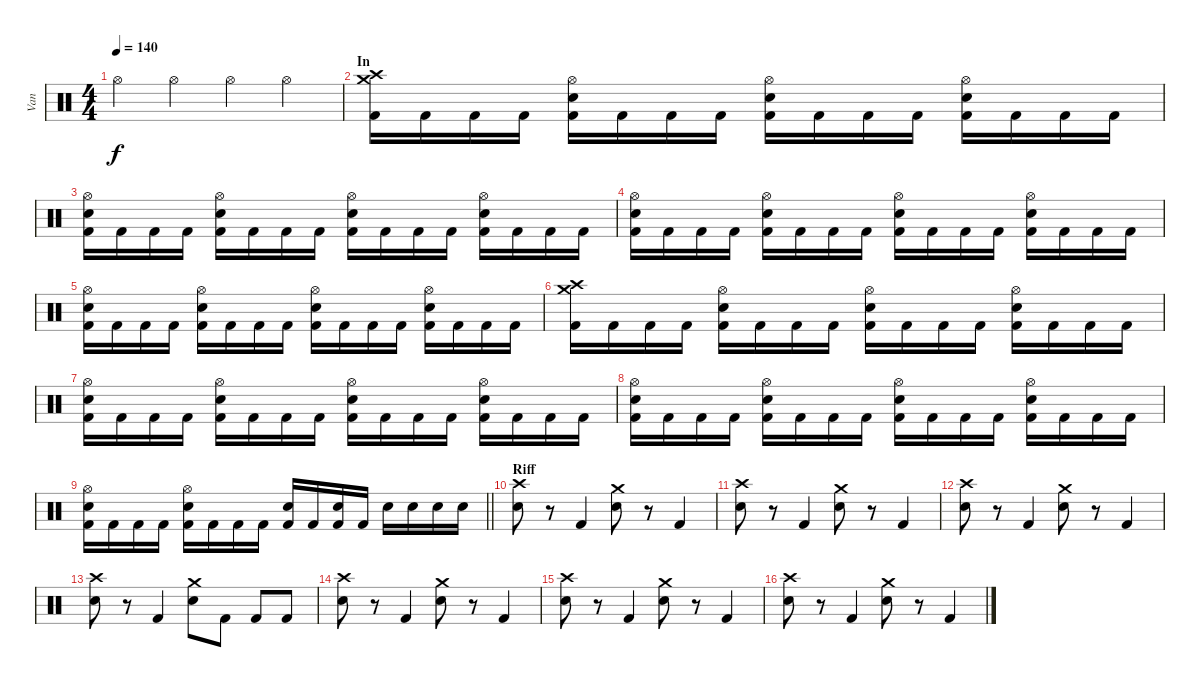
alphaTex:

\track ("Van" "Van") {instrument percussion}
\staff {score}
\articulation defaults
\ts (4 4)
\tempo 140
\clef neutral
\ks c "Hi-Hat (open)".4{dy f} "Hi-Hat (open)".4 "Hi-Hat (open)".4 "Hi-Hat (open)".4
|
\section ("" "In")
("Crash high (hit)" "Crash medium (hit)" "Kick (hit) 2").16 "Kick (hit) 2".16 "Kick (hit) 2".16 "Kick (hit) 2".16 ("Hi-Hat (open)" "Electric Snare (hit)" "Kick (hit) 2").16 "Kick (hit) 2".16 "Kick (hit) 2".16 "Kick (hit) 2".16 ("Hi-Hat (open)" "Electric Snare (hit)" "Kick (hit) 2").16 "Kick (hit) 2".16 "Kick (hit) 2".16 "Kick (hit) 2".16 ("Hi-Hat (open)" "Electric Snare (hit)" "Kick (hit) 2").16 "Kick (hit) 2".16 "Kick (hit) 2".16 "Kick (hit) 2".16 |
("Hi-Hat (open)" "Electric Snare (hit)" "Kick (hit) 2").16 "Kick (hit) 2".16 "Kick (hit) 2".16 "Kick (hit) 2".16 ("Hi-Hat (open)" "Electric Snare (hit)" "Kick (hit) 2").16 "Kick (hit) 2".16 "Kick (hit) 2".16 "Kick (hit) 2".16 ("Hi-Hat (open)" "Electric Snare (hit)" "Kick (hit) 2").16 "Kick (hit) 2".16 "Kick (hit) 2".16 "Kick (hit) 2".16 ("Hi-Hat (open)" "Electric Snare (hit)" "Kick (hit) 2").16 "Kick (hit) 2".16 "Kick (hit) 2".16 "Kick (hit) 2".16 |
("Hi-Hat (open)" "Electric Snare (hit)" "Kick (hit) 2").16 "Kick (hit) 2".16 "Kick (hit) 2".16 "Kick (hit) 2".16 ("Hi-Hat (open)" "Electric Snare (hit)" "Kick (hit) 2").16 "Kick (hit) 2".16 "Kick (hit) 2".16 "Kick (hit) 2".16 ("Hi-Hat (open)" "Electric Snare (hit)" "Kick (hit) 2").16 "Kick (hit) 2".16 "Kick (hit) 2".16 "Kick (hit) 2".16 ("Hi-Hat (open)" "Electric Snare (hit)" "Kick (hit) 2").16 "Kick (hit) 2".16 "Kick (hit) 2".16 "Kick (hit) 2".16 |
("Hi-Hat (open)" "Electric Snare (hit)" "Kick (hit) 2").16 "Kick (hit) 2".16 "Kick (hit) 2".16 "Kick (hit) 2".16 ("Hi-Hat (open)" "Electric Snare (hit)" "Kick (hit) 2").16 "Kick (hit) 2".16 "Kick (hit) 2".16 "Kick (hit) 2".16 ("Hi-Hat (open)" "Electric Snare (hit)" "Kick (hit) 2").16 "Kick (hit) 2".16 "Kick (hit) 2".16 "Kick (hit) 2".16 ("Hi-Hat (open)" "Electric Snare (hit)" "Kick (hit) 2").16 "Kick (hit) 2".16 "Kick (hit) 2".16 "Kick (hit) 2".16 |
("Crash high (hit)" "Crash medium (hit)" "Kick (hit) 2").16 "Kick (hit) 2".16 "Kick (hit) 2".16 "Kick (hit) 2".16 ("Hi-Hat (open)" "Electric Snare (hit)" "Kick (hit) 2").16 "Kick (hit) 2".16 "Kick (hit) 2".16 "Kick (hit) 2".16 ("Hi-Hat (open)" "Electric Snare (hit)" "Kick (hit) 2").16 "Kick (hit) 2".16 "Kick (hit) 2".16 "Kick (hit) 2".16 ("Hi-Hat (open)" "Electric Snare (hit)" "Kick (hit) 2").16 "Kick (hit) 2".16 "Kick (hit) 2".16 "Kick (hit) 2".16 |
("Hi-Hat (open)" "Electric Snare (hit)" "Kick (hit) 2").16 "Kick (hit) 2".16 "Kick (hit) 2".16 "Kick (hit) 2".16 ("Hi-Hat (open)" "Electric Snare (hit)" "Kick (hit) 2").16 "Kick (hit) 2".16 "Kick (hit) 2".16 "Kick (hit) 2".16 ("Hi-Hat (open)" "Electric Snare (hit)" "Kick (hit) 2").16 "Kick (hit) 2".16 "Kick (hit) 2".16 "Kick (hit) 2".16 ("Hi-Hat (open)" "Electric Snare (hit)" "Kick (hit) 2").16 "Kick (hit) 2".16 "Kick (hit) 2".16 "Kick (hit) 2".16 |
("Hi-Hat (open)" "Electric Snare (hit)" "Kick (hit) 2").16 "Kick (hit) 2".16 "Kick (hit) 2".16 "Kick (hit) 2".16 ("Hi-Hat (open)" "Electric Snare (hit)" "Kick (hit) 2").16 "Kick (hit) 2".16 "Kick (hit) 2".16 "Kick (hit) 2".16 ("Hi-Hat (open)" "Electric Snare (hit)" "Kick (hit) 2").16 "Kick (hit) 2".16 "Kick (hit) 2".16 "Kick (hit) 2".16 ("Hi-Hat (open)" "Electric Snare (hit)" "Kick (hit) 2").16 "Kick (hit) 2".16 "Kick (hit) 2".16 "Kick (hit) 2".16 |
\barLineRight lightlight
("Hi-Hat (open)" "Electric Snare (hit)" "Kick (hit) 2").16 "Kick (hit) 2".16 "Kick (hit) 2".16 "Kick (hit) 2".16 ("Hi-Hat (open)" "Electric Snare (hit)" "Kick (hit) 2").16 "Kick (hit) 2".16 "Kick (hit) 2".16 "Kick (hit) 2".16 ("Electric Snare (hit)" "Kick (hit) 2").16 "Kick (hit) 2".16 ("Electric Snare (hit)" "Kick (hit) 2").16 "Kick (hit) 2".16 "Electric Snare (hit)".16 "Electric Snare (hit)".16 "Electric Snare (hit)".16 "Electric Snare (hit)".16 |
\section ("" "Riff")
("Crash high (hit)" "Electric Snare (hit)").8 r.8 "Kick (hit) 2".4 ("Crash medium (hit)" "Electric Snare (hit)").8 r.8 "Kick (hit) 2".4 |
("Crash high (hit)" "Electric Snare (hit)").8 r.8 "Kick (hit) 2".4 ("Crash medium (hit)" "Electric Snare (hit)").8 r.8 "Kick (hit) 2".4 |
("Crash high (hit)" "Electric Snare (hit)").8 r.8 "Kick (hit) 2".4 ("Crash medium (hit)" "Electric Snare (hit)").8 r.8 "Kick (hit) 2".4 |
("Crash high (hit)" "Electric Snare (hit)").8 r.8 "Kick (hit) 2".4 ("Crash medium (hit)" "Electric Snare (hit)").8 "Kick (hit) 2".8 "Kick (hit) 2".8 "Kick (hit) 2".8 |
("Crash high (hit)" "Electric Snare (hit)").8 r.8 "Kick (hit) 2".4 ("Crash medium (hit)" "Electric Snare (hit)").8 r.8 "Kick (hit) 2".4 |
("Crash high (hit)" "Electric Snare (hit)").8 r.8 "Kick (hit) 2".4 ("Crash medium (hit)" "Electric Snare (hit)").8 r.8 "Kick (hit) 2".4 |
("Crash high (hit)" "Electric Snare (hit)").8 r.8 "Kick (hit) 2".4 ("Crash medium (hit)" "Electric Snare (hit)").8 r.8 "Kick (hit) 2".4
